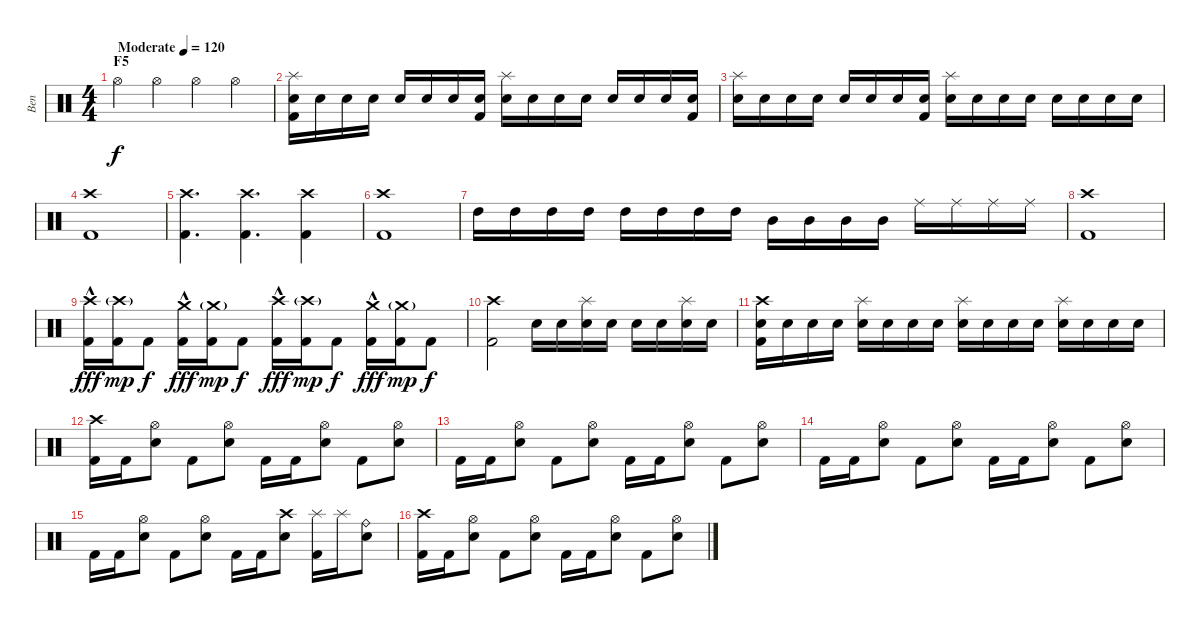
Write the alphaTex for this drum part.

\track ("Ben" "Ben") {instrument percussion}
\staff {score}
\articulation defaults
\ts (4 4)
\section ("" "F5")
\tempo (120 "Moderate")
\tempo 185
\tempo (120 "Moderate")
\clef neutral
\ks c "Hi-Hat (open)".4{dy f} "Hi-Hat (open)".4 "Hi-Hat (open)".4 "Hi-Hat (open)".4
|
("Splash (hit)" "Electric Snare (hit)" "Kick (hit) 2").16 "Electric Snare (hit)".16 "Electric Snare (hit)".16 "Electric Snare (hit)".16 "Electric Snare (hit)".16 "Electric Snare (hit)".16 "Electric Snare (hit)".16 ("Electric Snare (hit)" "Kick (hit) 2").16 ("Splash (hit)" "Electric Snare (hit)").16 "Electric Snare (hit)".16 "Electric Snare (hit)".16 "Electric Snare (hit)".16 "Electric Snare (hit)".16 "Electric Snare (hit)".16 "Electric Snare (hit)".16 ("Electric Snare (hit)" "Kick (hit) 2").16 |
("Splash (hit)" "Electric Snare (hit)").16 "Electric Snare (hit)".16 "Electric Snare (hit)".16 "Electric Snare (hit)".16 "Electric Snare (hit)".16 "Electric Snare (hit)".16 "Electric Snare (hit)".16 ("Electric Snare (hit)" "Kick (hit) 2").16 ("Splash (hit)" "Electric Snare (hit)").16 "Electric Snare (hit)".16 "Electric Snare (hit)".16 "Electric Snare (hit)".16 "Electric Snare (hit)".16 "Electric Snare (hit)".16 "Electric Snare (hit)".16 "Electric Snare (hit)".16 |
("Crash high (hit)" "Kick (hit) 2").1 |
("Crash high (hit)" "Kick (hit) 2").4{d} ("Crash high (hit)" "Kick (hit) 2").4{d} ("Crash high (hit)" "Kick (hit) 2").4 |
("Crash high (hit)" "Kick (hit) 2").1 |
"High Tom (hit)".16 "High Tom (hit)".16 "High Tom (hit)".16 "High Tom (hit)".16 "High Tom (hit)".16 "High Tom (hit)".16 "High Tom (hit)".16 "High Tom (hit)".16 "Mid Tom (hit)".16 "Mid Tom (hit)".16 "Mid Tom (hit)".16 "Mid Tom (hit)".16 "Ride (middle)".16 "Ride (middle)".16 "Ride (middle)".16 "Ride (middle)".16 |
("Crash high (hit)" "Kick (hit) 2").1 |
("Crash high (hit)"{hac} "Kick (hit) 2").16{dy fff} ("Crash high (hit)"{g} "Kick (hit) 2").16{dy mp} "Kick (hit) 2".8{dy f} ("Crash medium (hit)"{hac} "Kick (hit) 2").16{dy fff} ("Crash medium (hit)"{g} "Kick (hit) 2").16{dy mp} "Kick (hit) 2".8{dy f} ("Crash high (hit)"{hac} "Kick (hit) 2").16{dy fff} ("Crash high (hit)"{g} "Kick (hit) 2").16{dy mp} "Kick (hit) 2".8{dy f} ("Crash medium (hit)"{hac} "Kick (hit) 2").16{dy fff} ("Crash medium (hit)"{g} "Kick (hit) 2").16{dy mp} "Kick (hit) 2".8{dy f} |
("Crash high (hit)" "Kick (hit) 2").2 "Electric Snare (hit)".16 "Electric Snare (hit)".16 ("Splash (hit)" "Electric Snare (hit)").16 "Electric Snare (hit)".16 "Electric Snare (hit)".16 "Electric Snare (hit)".16 ("Splash (hit)" "Electric Snare (hit)").16 "Electric Snare (hit)".16 |
("Crash high (hit)" "Electric Snare (hit)" "Kick (hit) 2").16 "Electric Snare (hit)".16 "Electric Snare (hit)".16 "Electric Snare (hit)".16 ("Splash (hit)" "Electric Snare (hit)").16 "Electric Snare (hit)".16 "Electric Snare (hit)".16 "Electric Snare (hit)".16 ("Splash (hit)" "Electric Snare (hit)").16 "Electric Snare (hit)".16 "Electric Snare (hit)".16 "Electric Snare (hit)".16 ("Splash (hit)" "Electric Snare (hit)").16 "Electric Snare (hit)".16 "Electric Snare (hit)".16 "Electric Snare (hit)".16 |
("Crash high (hit)" "Kick (hit) 2").16 "Kick (hit) 2".16 ("Hi-Hat (open)" "Electric Snare (hit)").8 "Kick (hit) 2".8 ("Hi-Hat (open)" "Electric Snare (hit)").8 "Kick (hit) 2".16 "Kick (hit) 2".16 ("Hi-Hat (open)" "Electric Snare (hit)").8 "Kick (hit) 2".8 ("Hi-Hat (open)" "Electric Snare (hit)").8 |
"Kick (hit) 2".16 "Kick (hit) 2".16 ("Hi-Hat (open)" "Electric Snare (hit)").8 "Kick (hit) 2".8 ("Hi-Hat (open)" "Electric Snare (hit)").8 "Kick (hit) 2".16 "Kick (hit) 2".16 ("Hi-Hat (open)" "Electric Snare (hit)").8 "Kick (hit) 2".8 ("Hi-Hat (open)" "Electric Snare (hit)").8 |
"Kick (hit) 2".16 "Kick (hit) 2".16 ("Hi-Hat (open)" "Electric Snare (hit)").8 "Kick (hit) 2".8 ("Hi-Hat (open)" "Electric Snare (hit)").8 "Kick (hit) 2".16 "Kick (hit) 2".16 ("Hi-Hat (open)" "Electric Snare (hit)").8 "Kick (hit) 2".8 ("Hi-Hat (open)" "Electric Snare (hit)").8 |
"Kick (hit) 2".16 "Kick (hit) 2".16 ("Hi-Hat (open)" "Electric Snare (hit)").8 "Kick (hit) 2".8 ("Hi-Hat (open)" "Electric Snare (hit)").8 "Kick (hit) 2".16 "Kick (hit) 2".16 ("Crash high (hit)" "Electric Snare (hit)").8 ("Splash (hit)" "Kick (hit) 2").16 "Splash (hit)".16 ("Ride (bell)" "Electric Snare (hit)").8 |
("Crash high (hit)" "Kick (hit) 2").16 "Kick (hit) 2".16 ("Hi-Hat (open)" "Electric Snare (hit)").8 "Kick (hit) 2".8 ("Hi-Hat (open)" "Electric Snare (hit)").8 "Kick (hit) 2".16 "Kick (hit) 2".16 ("Hi-Hat (open)" "Electric Snare (hit)").8 "Kick (hit) 2".8 ("Hi-Hat (open)" "Electric Snare (hit)").8
